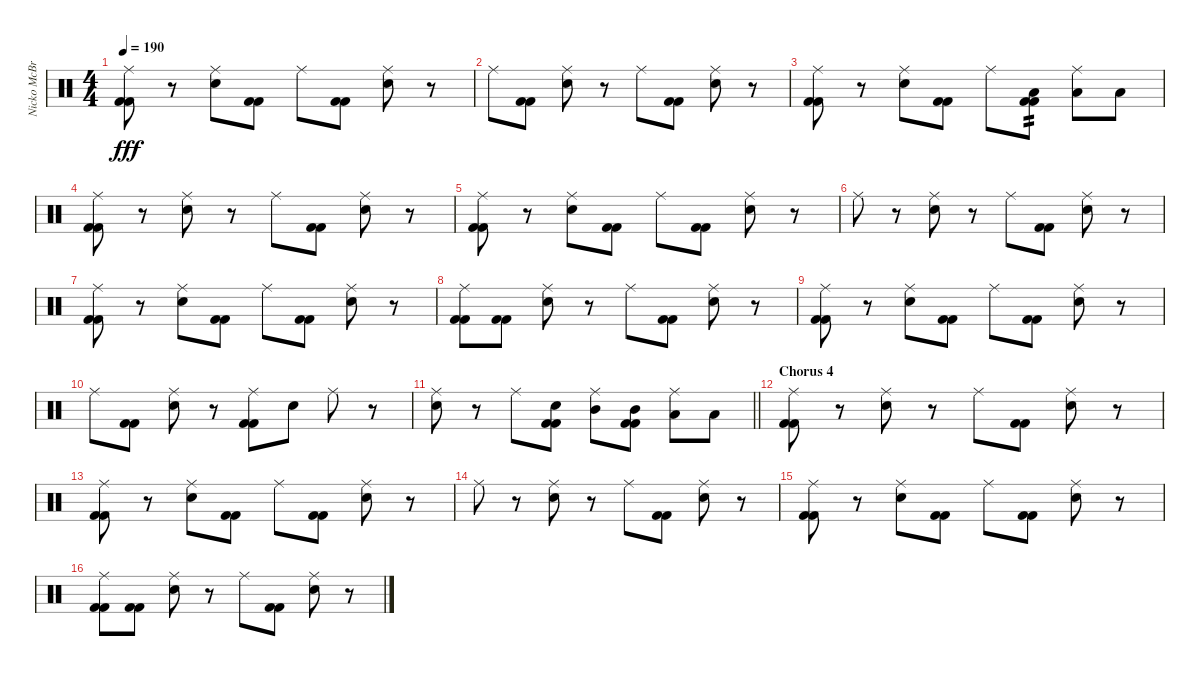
\track ("Nicko McBrain" "Nicko McBr") {instrument percussion}
\staff {score}
\articulation defaults
\ts (4 4)
\tempo 190
\clef neutral
\ks c
("Ride (middle)" "Kick (hit) 2" "Kick (hit) 2").8{dy fff} r.8 ("Snare (hit) 2" "Ride (middle)").8 ("Kick (hit) 2" "Kick (hit) 2").8 "Ride (middle)".8 ("Kick (hit) 2" "Kick (hit) 2").8 ("Snare (hit) 2" "Ride (middle)").8 r.8 |
"Ride (middle)".8 ("Kick (hit) 2" "Kick (hit) 2").8 ("Snare (hit) 2" "Ride (middle)").8 r.8 "Ride (middle)".8 ("Kick (hit) 2" "Kick (hit) 2").8 ("Snare (hit) 2" "Ride (middle)").8 r.8 |
("Ride (middle)" "Kick (hit) 2" "Kick (hit) 2").8 r.8 ("Snare (hit) 2" "Ride (middle)").8 ("Kick (hit) 2" "Kick (hit) 2").8 "Ride (middle)".8 ("Low Tom (hit)" "Kick (hit) 2" "Kick (hit) 2").8{tp 2} ("Low Tom (hit)" "Ride (middle)").8 "Low Tom (hit)".8 |
("Ride (middle)" "Kick (hit) 2" "Kick (hit) 2").8 r.8 ("Snare (hit) 2" "Ride (middle)").8 r.8 "Ride (middle)".8 ("Kick (hit) 2" "Kick (hit) 2").8 ("Snare (hit) 2" "Ride (middle)").8 r.8 |
("Ride (middle)" "Kick (hit) 2" "Kick (hit) 2").8 r.8 ("Snare (hit) 2" "Ride (middle)").8 ("Kick (hit) 2" "Kick (hit) 2").8 "Ride (middle)".8 ("Kick (hit) 2" "Kick (hit) 2").8 ("Snare (hit) 2" "Ride (middle)").8 r.8 |
"Ride (middle)".8 r.8 ("Snare (hit) 2" "Ride (middle)").8 r.8 "Ride (middle)".8 ("Kick (hit) 2" "Kick (hit) 2").8 ("Snare (hit) 2" "Ride (middle)").8 r.8 |
("Ride (middle)" "Kick (hit) 2" "Kick (hit) 2").8 r.8 ("Snare (hit) 2" "Ride (middle)").8 ("Kick (hit) 2" "Kick (hit) 2").8 "Ride (middle)".8 ("Kick (hit) 2" "Kick (hit) 2").8 ("Snare (hit) 2" "Ride (middle)").8 r.8 |
("Ride (middle)" "Kick (hit) 2" "Kick (hit) 2").8 ("Kick (hit) 2" "Kick (hit) 2").8 ("Snare (hit) 2" "Ride (middle)").8 r.8 "Ride (middle)".8 ("Kick (hit) 2" "Kick (hit) 2").8 ("Snare (hit) 2" "Ride (middle)").8 r.8 |
("Ride (middle)" "Kick (hit) 2" "Kick (hit) 2").8 r.8 ("Snare (hit) 2" "Ride (middle)").8 ("Kick (hit) 2" "Kick (hit) 2").8 "Ride (middle)".8 ("Kick (hit) 2" "Kick (hit) 2").8 ("Snare (hit) 2" "Ride (middle)").8 r.8 |
"Ride (middle)".8 ("Kick (hit) 2" "Kick (hit) 2").8 ("Snare (hit) 2" "Ride (middle)").8 r.8 ("Ride (middle)" "Kick (hit) 2" "Kick (hit) 2").8 "Snare (hit) 2".8 "Ride (middle)".8 r.8 |
\barLineRight lightlight
("Snare (hit) 2" "Ride (middle)").8 r.8 "Ride (middle)".8 ("Snare (hit) 2" "Kick (hit) 2" "Kick (hit) 2").8 ("Mid Tom (hit)" "Ride (middle)").8 ("Mid Tom (hit)" "Kick (hit) 2" "Kick (hit) 2").8 ("Low Tom (hit)" "Ride (middle)").8 "Low Tom (hit)".8 |
\section ("" "Chorus 4")
("Ride (middle)" "Kick (hit) 2" "Kick (hit) 2").8 r.8 ("Snare (hit) 2" "Ride (middle)").8 r.8 "Ride (middle)".8 ("Kick (hit) 2" "Kick (hit) 2").8 ("Snare (hit) 2" "Ride (middle)").8 r.8 |
("Ride (middle)" "Kick (hit) 2" "Kick (hit) 2").8 r.8 ("Snare (hit) 2" "Ride (middle)").8 ("Kick (hit) 2" "Kick (hit) 2").8 "Ride (middle)".8 ("Kick (hit) 2" "Kick (hit) 2").8 ("Snare (hit) 2" "Ride (middle)").8 r.8 |
"Ride (middle)".8 r.8 ("Snare (hit) 2" "Ride (middle)").8 r.8 "Ride (middle)".8 ("Kick (hit) 2" "Kick (hit) 2").8 ("Snare (hit) 2" "Ride (middle)").8 r.8 |
("Ride (middle)" "Kick (hit) 2" "Kick (hit) 2").8 r.8 ("Snare (hit) 2" "Ride (middle)").8 ("Kick (hit) 2" "Kick (hit) 2").8 "Ride (middle)".8 ("Kick (hit) 2" "Kick (hit) 2").8 ("Snare (hit) 2" "Ride (middle)").8 r.8 |
("Ride (middle)" "Kick (hit) 2" "Kick (hit) 2").8 ("Kick (hit) 2" "Kick (hit) 2").8 ("Snare (hit) 2" "Ride (middle)").8 r.8 "Ride (middle)".8 ("Kick (hit) 2" "Kick (hit) 2").8 ("Snare (hit) 2" "Ride (middle)").8 r.8
